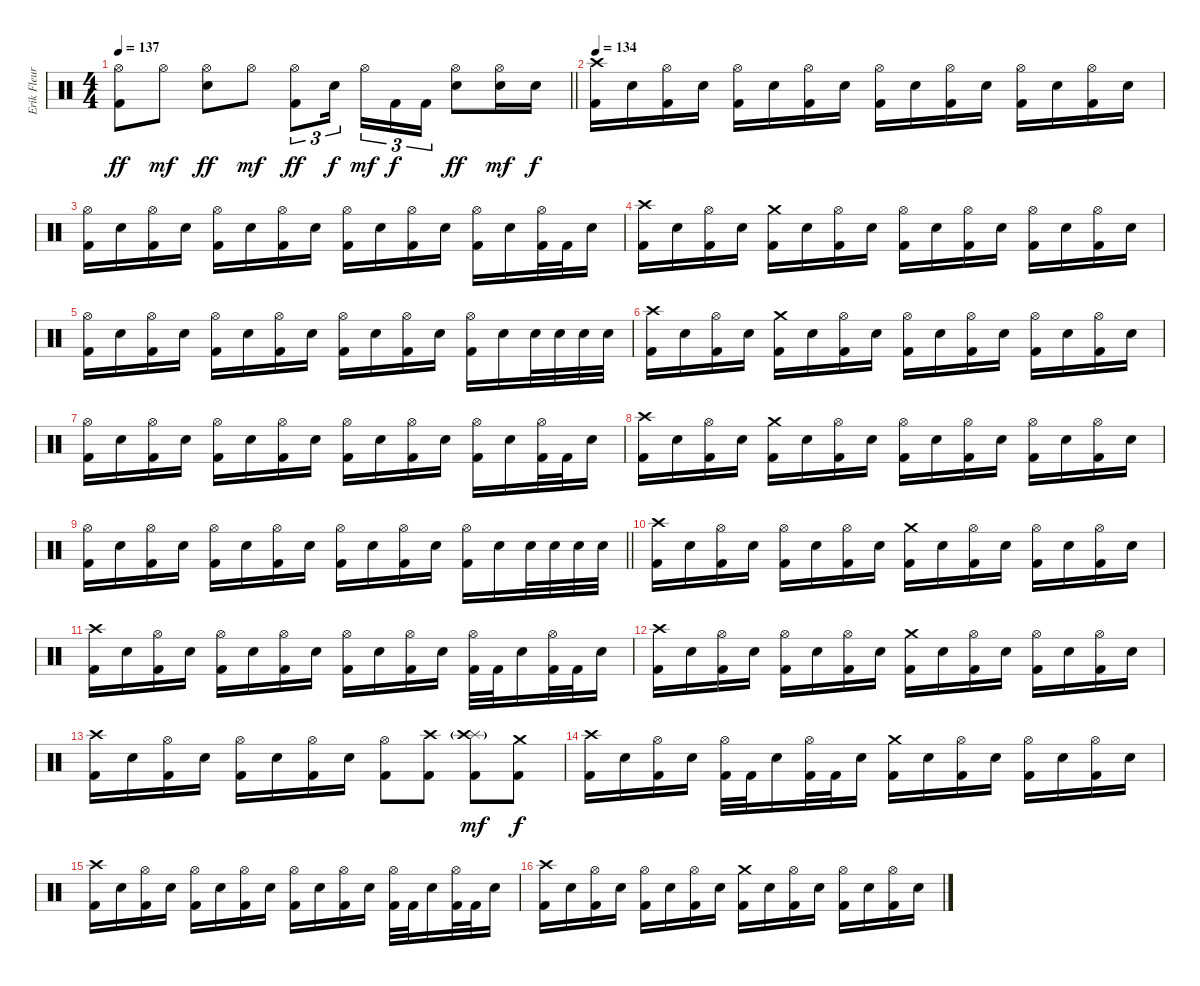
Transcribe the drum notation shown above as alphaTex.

\track ("Erik Fleuren" "Erik Fleur") {instrument percussion}
\staff {score}
\articulation defaults
\ts (4 4)
\tempo 137
\clef neutral
\barLineRight lightlight
\ks c
("Hi-Hat (open)" "Kick (hit) 2").8{dy ff} "Hi-Hat (open)".8{dy mf} ("Hi-Hat (open)" "Electric Snare (hit)").8{dy ff} "Hi-Hat (open)".8{dy mf} ("Hi-Hat (open)" "Kick (hit) 2").8{tu (3 2) dy ff} "Electric Snare (hit)".16{tu (3 2) dy f beam splitsecondary} "Hi-Hat (open)".16{tu (3 2) dy mf} "Kick (hit) 2".16{tu (3 2) dy f} "Kick (hit) 2".16{tu (3 2)} ("Hi-Hat (open)" "Electric Snare (hit)").8{dy ff} ("Hi-Hat (open)" "Electric Snare (hit)").16{dy mf} "Electric Snare (hit)".16{dy f} |
\tempo 134
("Crash high (hit)" "Kick (hit) 2").16 "Electric Snare (hit)".16 ("Hi-Hat (open)" "Kick (hit) 2").16 "Electric Snare (hit)".16 ("Hi-Hat (open)" "Kick (hit) 2").16 "Electric Snare (hit)".16 ("Hi-Hat (open)" "Kick (hit) 2").16 "Electric Snare (hit)".16 ("Hi-Hat (open)" "Kick (hit) 2").16 "Electric Snare (hit)".16 ("Hi-Hat (open)" "Kick (hit) 2").16 "Electric Snare (hit)".16 ("Hi-Hat (open)" "Kick (hit) 2").16 "Electric Snare (hit)".16 ("Hi-Hat (open)" "Kick (hit) 2").16 "Electric Snare (hit)".16 |
("Hi-Hat (open)" "Kick (hit) 2").16 "Electric Snare (hit)".16 ("Hi-Hat (open)" "Kick (hit) 2").16 "Electric Snare (hit)".16 ("Hi-Hat (open)" "Kick (hit) 2").16 "Electric Snare (hit)".16 ("Hi-Hat (open)" "Kick (hit) 2").16 "Electric Snare (hit)".16 ("Hi-Hat (open)" "Kick (hit) 2").16 "Electric Snare (hit)".16 ("Hi-Hat (open)" "Kick (hit) 2").16 "Electric Snare (hit)".16 ("Hi-Hat (open)" "Kick (hit) 2").16 "Electric Snare (hit)".16 ("Hi-Hat (open)" "Kick (hit) 2").32 "Kick (hit) 2".32 "Electric Snare (hit)".16 |
("Crash high (hit)" "Kick (hit) 2").16 "Electric Snare (hit)".16 ("Hi-Hat (open)" "Kick (hit) 2").16 "Electric Snare (hit)".16 ("Crash medium (hit)" "Kick (hit) 2").16 "Electric Snare (hit)".16 ("Hi-Hat (open)" "Kick (hit) 2").16 "Electric Snare (hit)".16 ("Hi-Hat (open)" "Kick (hit) 2").16 "Electric Snare (hit)".16 ("Hi-Hat (open)" "Kick (hit) 2").16 "Electric Snare (hit)".16 ("Hi-Hat (open)" "Kick (hit) 2").16 "Electric Snare (hit)".16 ("Hi-Hat (open)" "Kick (hit) 2").16 "Electric Snare (hit)".16 |
("Hi-Hat (open)" "Kick (hit) 2").16 "Electric Snare (hit)".16 ("Hi-Hat (open)" "Kick (hit) 2").16 "Electric Snare (hit)".16 ("Hi-Hat (open)" "Kick (hit) 2").16 "Electric Snare (hit)".16 ("Hi-Hat (open)" "Kick (hit) 2").16 "Electric Snare (hit)".16 ("Hi-Hat (open)" "Kick (hit) 2").16 "Electric Snare (hit)".16 ("Hi-Hat (open)" "Kick (hit) 2").16 "Electric Snare (hit)".16 ("Hi-Hat (open)" "Kick (hit) 2").16 "Electric Snare (hit)".16 "Electric Snare (hit)".32 "Electric Snare (hit)".32 "Electric Snare (hit)".32 "Electric Snare (hit)".32 |
("Crash high (hit)" "Kick (hit) 2").16 "Electric Snare (hit)".16 ("Hi-Hat (open)" "Kick (hit) 2").16 "Electric Snare (hit)".16 ("Crash medium (hit)" "Kick (hit) 2").16 "Electric Snare (hit)".16 ("Hi-Hat (open)" "Kick (hit) 2").16 "Electric Snare (hit)".16 ("Hi-Hat (open)" "Kick (hit) 2").16 "Electric Snare (hit)".16 ("Hi-Hat (open)" "Kick (hit) 2").16 "Electric Snare (hit)".16 ("Hi-Hat (open)" "Kick (hit) 2").16 "Electric Snare (hit)".16 ("Hi-Hat (open)" "Kick (hit) 2").16 "Electric Snare (hit)".16 |
("Hi-Hat (open)" "Kick (hit) 2").16 "Electric Snare (hit)".16 ("Hi-Hat (open)" "Kick (hit) 2").16 "Electric Snare (hit)".16 ("Hi-Hat (open)" "Kick (hit) 2").16 "Electric Snare (hit)".16 ("Hi-Hat (open)" "Kick (hit) 2").16 "Electric Snare (hit)".16 ("Hi-Hat (open)" "Kick (hit) 2").16 "Electric Snare (hit)".16 ("Hi-Hat (open)" "Kick (hit) 2").16 "Electric Snare (hit)".16 ("Hi-Hat (open)" "Kick (hit) 2").16 "Electric Snare (hit)".16 ("Hi-Hat (open)" "Kick (hit) 2").32 "Kick (hit) 2".32 "Electric Snare (hit)".16 |
("Crash high (hit)" "Kick (hit) 2").16 "Electric Snare (hit)".16 ("Hi-Hat (open)" "Kick (hit) 2").16 "Electric Snare (hit)".16 ("Crash medium (hit)" "Kick (hit) 2").16 "Electric Snare (hit)".16 ("Hi-Hat (open)" "Kick (hit) 2").16 "Electric Snare (hit)".16 ("Hi-Hat (open)" "Kick (hit) 2").16 "Electric Snare (hit)".16 ("Hi-Hat (open)" "Kick (hit) 2").16 "Electric Snare (hit)".16 ("Hi-Hat (open)" "Kick (hit) 2").16 "Electric Snare (hit)".16 ("Hi-Hat (open)" "Kick (hit) 2").16 "Electric Snare (hit)".16 |
\barLineRight lightlight
("Hi-Hat (open)" "Kick (hit) 2").16 "Electric Snare (hit)".16 ("Hi-Hat (open)" "Kick (hit) 2").16 "Electric Snare (hit)".16 ("Hi-Hat (open)" "Kick (hit) 2").16 "Electric Snare (hit)".16 ("Hi-Hat (open)" "Kick (hit) 2").16 "Electric Snare (hit)".16 ("Hi-Hat (open)" "Kick (hit) 2").16 "Electric Snare (hit)".16 ("Hi-Hat (open)" "Kick (hit) 2").16 "Electric Snare (hit)".16 ("Hi-Hat (open)" "Kick (hit) 2").16 "Electric Snare (hit)".16 "Electric Snare (hit)".32 "Electric Snare (hit)".32 "Electric Snare (hit)".32 "Electric Snare (hit)".32 |
("Crash high (hit)" "Kick (hit) 2").16 "Electric Snare (hit)".16 ("Hi-Hat (open)" "Kick (hit) 2").16 "Electric Snare (hit)".16 ("Hi-Hat (open)" "Kick (hit) 2").16 "Electric Snare (hit)".16 ("Hi-Hat (open)" "Kick (hit) 2").16 "Electric Snare (hit)".16 ("Crash medium (hit)" "Kick (hit) 2").16 "Electric Snare (hit)".16 ("Hi-Hat (open)" "Kick (hit) 2").16 "Electric Snare (hit)".16 ("Hi-Hat (open)" "Kick (hit) 2").16 "Electric Snare (hit)".16 ("Hi-Hat (open)" "Kick (hit) 2").16 "Electric Snare (hit)".16 |
("Crash high (hit)" "Kick (hit) 2").16 "Electric Snare (hit)".16 ("Hi-Hat (open)" "Kick (hit) 2").16 "Electric Snare (hit)".16 ("Hi-Hat (open)" "Kick (hit) 2").16 "Electric Snare (hit)".16 ("Hi-Hat (open)" "Kick (hit) 2").16 "Electric Snare (hit)".16 ("Hi-Hat (open)" "Kick (hit) 2").16 "Electric Snare (hit)".16 ("Hi-Hat (open)" "Kick (hit) 2").16 "Electric Snare (hit)".16 ("Hi-Hat (open)" "Kick (hit) 2").32 "Kick (hit) 2".32 "Electric Snare (hit)".16 ("Hi-Hat (open)" "Kick (hit) 2").32 "Kick (hit) 2".32 "Electric Snare (hit)".16 |
("Crash high (hit)" "Kick (hit) 2").16 "Electric Snare (hit)".16 ("Hi-Hat (open)" "Kick (hit) 2").16 "Electric Snare (hit)".16 ("Hi-Hat (open)" "Kick (hit) 2").16 "Electric Snare (hit)".16 ("Hi-Hat (open)" "Kick (hit) 2").16 "Electric Snare (hit)".16 ("Crash medium (hit)" "Kick (hit) 2").16 "Electric Snare (hit)".16 ("Hi-Hat (open)" "Kick (hit) 2").16 "Electric Snare (hit)".16 ("Hi-Hat (open)" "Kick (hit) 2").16 "Electric Snare (hit)".16 ("Hi-Hat (open)" "Kick (hit) 2").16 "Electric Snare (hit)".16 |
("Crash high (hit)" "Kick (hit) 2").16 "Electric Snare (hit)".16 ("Hi-Hat (open)" "Kick (hit) 2").16 "Electric Snare (hit)".16 ("Hi-Hat (open)" "Kick (hit) 2").16 "Electric Snare (hit)".16 ("Hi-Hat (open)" "Kick (hit) 2").16 "Electric Snare (hit)".16 ("Hi-Hat (open)" "Kick (hit) 2").8 ("Crash high (hit)" "Kick (hit) 2").8 ("Splash (hit)"{g} "Crash high (hit)" "Kick (hit) 2").8{dy mf} ("Crash medium (hit)" "Kick (hit) 2").8{dy f} |
("Crash high (hit)" "Kick (hit) 2").16 "Electric Snare (hit)".16 ("Hi-Hat (open)" "Kick (hit) 2").16 "Electric Snare (hit)".16 ("Hi-Hat (open)" "Kick (hit) 2").32 "Kick (hit) 2".32 "Electric Snare (hit)".16 ("Hi-Hat (open)" "Kick (hit) 2").32 "Kick (hit) 2".32 "Electric Snare (hit)".16 ("Crash medium (hit)" "Kick (hit) 2").16 "Electric Snare (hit)".16 ("Hi-Hat (open)" "Kick (hit) 2").16 "Electric Snare (hit)".16 ("Hi-Hat (open)" "Kick (hit) 2").16 "Electric Snare (hit)".16 ("Hi-Hat (open)" "Kick (hit) 2").16 "Electric Snare (hit)".16 |
("Crash high (hit)" "Kick (hit) 2").16 "Electric Snare (hit)".16 ("Hi-Hat (open)" "Kick (hit) 2").16 "Electric Snare (hit)".16 ("Hi-Hat (open)" "Kick (hit) 2").16 "Electric Snare (hit)".16 ("Hi-Hat (open)" "Kick (hit) 2").16 "Electric Snare (hit)".16 ("Hi-Hat (open)" "Kick (hit) 2").16 "Electric Snare (hit)".16 ("Hi-Hat (open)" "Kick (hit) 2").16 "Electric Snare (hit)".16 ("Hi-Hat (open)" "Kick (hit) 2").32 "Kick (hit) 2".32 "Electric Snare (hit)".16 ("Hi-Hat (open)" "Kick (hit) 2").32 "Kick (hit) 2".32 "Electric Snare (hit)".16 |
("Crash high (hit)" "Kick (hit) 2").16 "Electric Snare (hit)".16 ("Hi-Hat (open)" "Kick (hit) 2").16 "Electric Snare (hit)".16 ("Hi-Hat (open)" "Kick (hit) 2").16 "Electric Snare (hit)".16 ("Hi-Hat (open)" "Kick (hit) 2").16 "Electric Snare (hit)".16 ("Crash medium (hit)" "Kick (hit) 2").16 "Electric Snare (hit)".16 ("Hi-Hat (open)" "Kick (hit) 2").16 "Electric Snare (hit)".16 ("Hi-Hat (open)" "Kick (hit) 2").16 "Electric Snare (hit)".16 ("Hi-Hat (open)" "Kick (hit) 2").16 "Electric Snare (hit)".16
